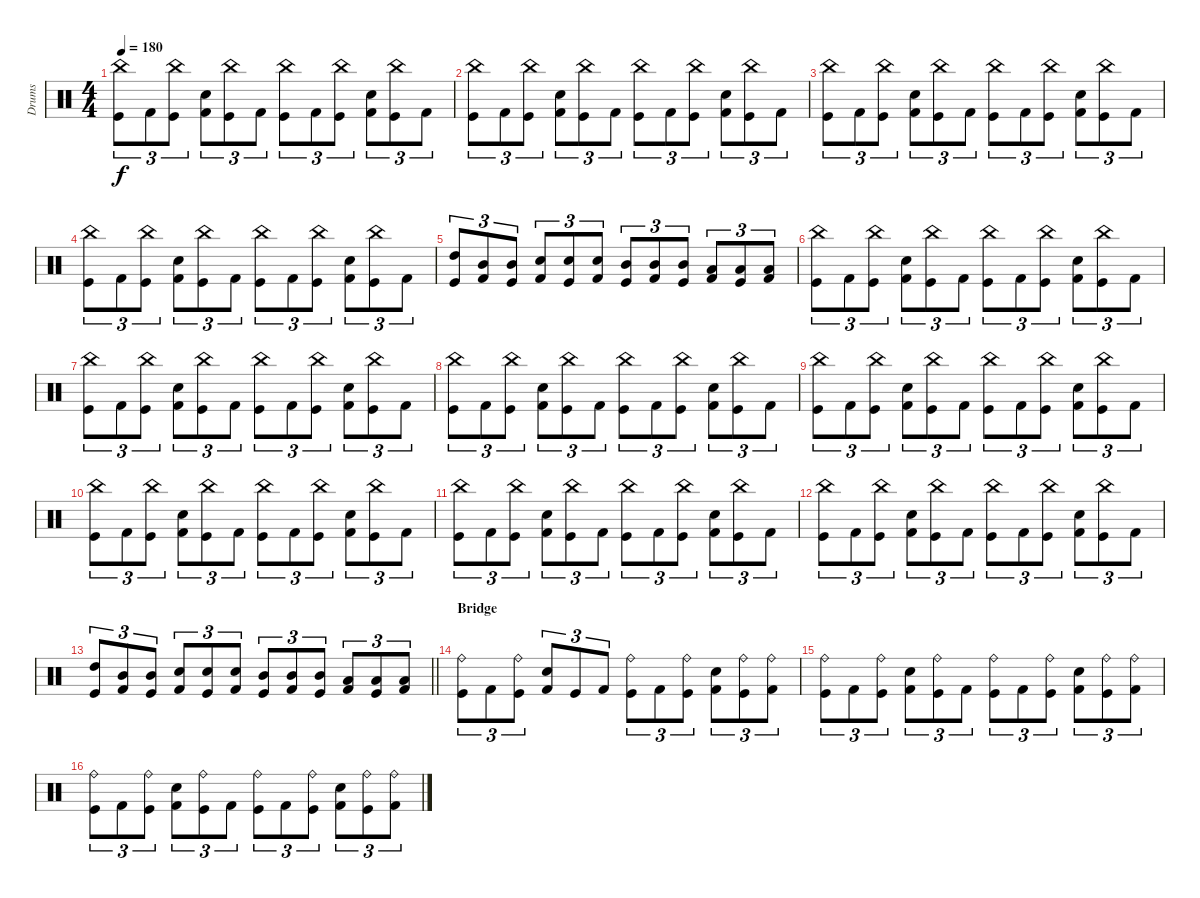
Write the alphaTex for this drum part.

\track ("Drums" "Drums") {instrument percussion}
\staff {score}
\articulation defaults
\ts (4 4)
\tempo 180
\clef neutral
\ks c
("China (hit)" "Kick (hit)").8{tu (3 2) dy f} "Kick (hit) 2".8{tu (3 2)} ("China (hit)" "Kick (hit)").8{tu (3 2)} ("Electric Snare (hit)" "Kick (hit) 2").8{tu (3 2)} ("China (hit)" "Kick (hit)").8{tu (3 2)} "Kick (hit) 2".8{tu (3 2)} ("China (hit)" "Kick (hit)").8{tu (3 2)} "Kick (hit) 2".8{tu (3 2)} ("China (hit)" "Kick (hit)").8{tu (3 2)} ("Electric Snare (hit)" "Kick (hit) 2").8{tu (3 2)} ("China (hit)" "Kick (hit)").8{tu (3 2)} "Kick (hit) 2".8{tu (3 2)} |
("China (hit)" "Kick (hit)").8{tu (3 2)} "Kick (hit) 2".8{tu (3 2)} ("China (hit)" "Kick (hit)").8{tu (3 2)} ("Electric Snare (hit)" "Kick (hit) 2").8{tu (3 2)} ("China (hit)" "Kick (hit)").8{tu (3 2)} "Kick (hit) 2".8{tu (3 2)} ("China (hit)" "Kick (hit)").8{tu (3 2)} "Kick (hit) 2".8{tu (3 2)} ("China (hit)" "Kick (hit)").8{tu (3 2)} ("Electric Snare (hit)" "Kick (hit) 2").8{tu (3 2)} ("China (hit)" "Kick (hit)").8{tu (3 2)} "Kick (hit) 2".8{tu (3 2)} |
("China (hit)" "Kick (hit)").8{tu (3 2)} "Kick (hit) 2".8{tu (3 2)} ("China (hit)" "Kick (hit)").8{tu (3 2)} ("Electric Snare (hit)" "Kick (hit) 2").8{tu (3 2)} ("China (hit)" "Kick (hit)").8{tu (3 2)} "Kick (hit) 2".8{tu (3 2)} ("China (hit)" "Kick (hit)").8{tu (3 2)} "Kick (hit) 2".8{tu (3 2)} ("China (hit)" "Kick (hit)").8{tu (3 2)} ("Electric Snare (hit)" "Kick (hit) 2").8{tu (3 2)} ("China (hit)" "Kick (hit)").8{tu (3 2)} "Kick (hit) 2".8{tu (3 2)} |
("China (hit)" "Kick (hit)").8{tu (3 2)} "Kick (hit) 2".8{tu (3 2)} ("China (hit)" "Kick (hit)").8{tu (3 2)} ("Electric Snare (hit)" "Kick (hit) 2").8{tu (3 2)} ("China (hit)" "Kick (hit)").8{tu (3 2)} "Kick (hit) 2".8{tu (3 2)} ("China (hit)" "Kick (hit)").8{tu (3 2)} "Kick (hit) 2".8{tu (3 2)} ("China (hit)" "Kick (hit)").8{tu (3 2)} ("Electric Snare (hit)" "Kick (hit) 2").8{tu (3 2)} ("China (hit)" "Kick (hit)").8{tu (3 2)} "Kick (hit) 2".8{tu (3 2)} |
("High Tom (hit)" "Kick (hit)").8{tu (3 2)} ("Mid Tom (hit)" "Kick (hit) 2").8{tu (3 2)} ("Mid Tom (hit)" "Kick (hit)").8{tu (3 2)} ("Electric Snare (hit)" "Kick (hit) 2").8{tu (3 2)} ("Electric Snare (hit)" "Kick (hit)").8{tu (3 2)} ("Electric Snare (hit)" "Kick (hit) 2").8{tu (3 2)} ("Mid Tom (hit)" "Kick (hit)").8{tu (3 2)} ("Mid Tom (hit)" "Kick (hit) 2").8{tu (3 2)} ("Mid Tom (hit)" "Kick (hit)").8{tu (3 2)} ("Low Tom (hit)" "Kick (hit) 2").8{tu (3 2)} ("Low Tom (hit)" "Kick (hit)").8{tu (3 2)} ("Low Tom (hit)" "Kick (hit) 2").8{tu (3 2)} |
("China (hit)" "Kick (hit)").8{tu (3 2)} "Kick (hit) 2".8{tu (3 2)} ("China (hit)" "Kick (hit)").8{tu (3 2)} ("Electric Snare (hit)" "Kick (hit) 2").8{tu (3 2)} ("China (hit)" "Kick (hit)").8{tu (3 2)} "Kick (hit) 2".8{tu (3 2)} ("China (hit)" "Kick (hit)").8{tu (3 2)} "Kick (hit) 2".8{tu (3 2)} ("China (hit)" "Kick (hit)").8{tu (3 2)} ("Electric Snare (hit)" "Kick (hit) 2").8{tu (3 2)} ("China (hit)" "Kick (hit)").8{tu (3 2)} "Kick (hit) 2".8{tu (3 2)} |
("China (hit)" "Kick (hit)").8{tu (3 2)} "Kick (hit) 2".8{tu (3 2)} ("China (hit)" "Kick (hit)").8{tu (3 2)} ("Electric Snare (hit)" "Kick (hit) 2").8{tu (3 2)} ("China (hit)" "Kick (hit)").8{tu (3 2)} "Kick (hit) 2".8{tu (3 2)} ("China (hit)" "Kick (hit)").8{tu (3 2)} "Kick (hit) 2".8{tu (3 2)} ("China (hit)" "Kick (hit)").8{tu (3 2)} ("Electric Snare (hit)" "Kick (hit) 2").8{tu (3 2)} ("China (hit)" "Kick (hit)").8{tu (3 2)} "Kick (hit) 2".8{tu (3 2)} |
("China (hit)" "Kick (hit)").8{tu (3 2)} "Kick (hit) 2".8{tu (3 2)} ("China (hit)" "Kick (hit)").8{tu (3 2)} ("Electric Snare (hit)" "Kick (hit) 2").8{tu (3 2)} ("China (hit)" "Kick (hit)").8{tu (3 2)} "Kick (hit) 2".8{tu (3 2)} ("China (hit)" "Kick (hit)").8{tu (3 2)} "Kick (hit) 2".8{tu (3 2)} ("China (hit)" "Kick (hit)").8{tu (3 2)} ("Electric Snare (hit)" "Kick (hit) 2").8{tu (3 2)} ("China (hit)" "Kick (hit)").8{tu (3 2)} "Kick (hit) 2".8{tu (3 2)} |
("China (hit)" "Kick (hit)").8{tu (3 2)} "Kick (hit) 2".8{tu (3 2)} ("China (hit)" "Kick (hit)").8{tu (3 2)} ("Electric Snare (hit)" "Kick (hit) 2").8{tu (3 2)} ("China (hit)" "Kick (hit)").8{tu (3 2)} "Kick (hit) 2".8{tu (3 2)} ("China (hit)" "Kick (hit)").8{tu (3 2)} "Kick (hit) 2".8{tu (3 2)} ("China (hit)" "Kick (hit)").8{tu (3 2)} ("Electric Snare (hit)" "Kick (hit) 2").8{tu (3 2)} ("China (hit)" "Kick (hit)").8{tu (3 2)} "Kick (hit) 2".8{tu (3 2)} |
("China (hit)" "Kick (hit)").8{tu (3 2)} "Kick (hit) 2".8{tu (3 2)} ("China (hit)" "Kick (hit)").8{tu (3 2)} ("Electric Snare (hit)" "Kick (hit) 2").8{tu (3 2)} ("China (hit)" "Kick (hit)").8{tu (3 2)} "Kick (hit) 2".8{tu (3 2)} ("China (hit)" "Kick (hit)").8{tu (3 2)} "Kick (hit) 2".8{tu (3 2)} ("China (hit)" "Kick (hit)").8{tu (3 2)} ("Electric Snare (hit)" "Kick (hit) 2").8{tu (3 2)} ("China (hit)" "Kick (hit)").8{tu (3 2)} "Kick (hit) 2".8{tu (3 2)} |
("China (hit)" "Kick (hit)").8{tu (3 2)} "Kick (hit) 2".8{tu (3 2)} ("China (hit)" "Kick (hit)").8{tu (3 2)} ("Electric Snare (hit)" "Kick (hit) 2").8{tu (3 2)} ("China (hit)" "Kick (hit)").8{tu (3 2)} "Kick (hit) 2".8{tu (3 2)} ("China (hit)" "Kick (hit)").8{tu (3 2)} "Kick (hit) 2".8{tu (3 2)} ("China (hit)" "Kick (hit)").8{tu (3 2)} ("Electric Snare (hit)" "Kick (hit) 2").8{tu (3 2)} ("China (hit)" "Kick (hit)").8{tu (3 2)} "Kick (hit) 2".8{tu (3 2)} |
("China (hit)" "Kick (hit)").8{tu (3 2)} "Kick (hit) 2".8{tu (3 2)} ("China (hit)" "Kick (hit)").8{tu (3 2)} ("Electric Snare (hit)" "Kick (hit) 2").8{tu (3 2)} ("China (hit)" "Kick (hit)").8{tu (3 2)} "Kick (hit) 2".8{tu (3 2)} ("China (hit)" "Kick (hit)").8{tu (3 2)} "Kick (hit) 2".8{tu (3 2)} ("China (hit)" "Kick (hit)").8{tu (3 2)} ("Electric Snare (hit)" "Kick (hit) 2").8{tu (3 2)} ("China (hit)" "Kick (hit)").8{tu (3 2)} "Kick (hit) 2".8{tu (3 2)} |
\barLineRight lightlight
("High Tom (hit)" "Kick (hit)").8{tu (3 2)} ("Mid Tom (hit)" "Kick (hit) 2").8{tu (3 2)} ("Mid Tom (hit)" "Kick (hit)").8{tu (3 2)} ("Electric Snare (hit)" "Kick (hit) 2").8{tu (3 2)} ("Electric Snare (hit)" "Kick (hit)").8{tu (3 2)} ("Electric Snare (hit)" "Kick (hit) 2").8{tu (3 2)} ("Mid Tom (hit)" "Kick (hit)").8{tu (3 2)} ("Mid Tom (hit)" "Kick (hit) 2").8{tu (3 2)} ("Mid Tom (hit)" "Kick (hit)").8{tu (3 2)} ("Low Tom (hit)" "Kick (hit) 2").8{tu (3 2)} ("Low Tom (hit)" "Kick (hit)").8{tu (3 2)} ("Low Tom (hit)" "Kick (hit) 2").8{tu (3 2)} |
\section ("" "Bridge")
("Ride (bell)" "Kick (hit)").8{tu (3 2)} "Kick (hit) 2".8{tu (3 2)} ("Ride (bell)" "Kick (hit)").8{tu (3 2)} ("Electric Snare (hit)" "Kick (hit) 2").8{tu (3 2)} "Kick (hit)".8{tu (3 2)} "Kick (hit) 2".8{tu (3 2)} ("Ride (bell)" "Kick (hit)").8{tu (3 2)} "Kick (hit) 2".8{tu (3 2)} ("Ride (bell)" "Kick (hit)").8{tu (3 2)} ("Electric Snare (hit)" "Kick (hit) 2").8{tu (3 2)} ("Ride (bell)" "Kick (hit)").8{tu (3 2)} ("Ride (bell)" "Kick (hit) 2").8{tu (3 2)} |
("Ride (bell)" "Kick (hit)").8{tu (3 2)} "Kick (hit) 2".8{tu (3 2)} ("Ride (bell)" "Kick (hit)").8{tu (3 2)} ("Electric Snare (hit)" "Kick (hit) 2").8{tu (3 2)} ("Ride (bell)" "Kick (hit)").8{tu (3 2)} "Kick (hit) 2".8{tu (3 2)} ("Ride (bell)" "Kick (hit)").8{tu (3 2)} "Kick (hit) 2".8{tu (3 2)} ("Ride (bell)" "Kick (hit)").8{tu (3 2)} ("Electric Snare (hit)" "Kick (hit) 2").8{tu (3 2)} ("Ride (bell)" "Kick (hit)").8{tu (3 2)} ("Ride (bell)" "Kick (hit) 2").8{tu (3 2)} |
("Ride (bell)" "Kick (hit)").8{tu (3 2)} "Kick (hit) 2".8{tu (3 2)} ("Ride (bell)" "Kick (hit)").8{tu (3 2)} ("Electric Snare (hit)" "Kick (hit) 2").8{tu (3 2)} ("Ride (bell)" "Kick (hit)").8{tu (3 2)} "Kick (hit) 2".8{tu (3 2)} ("Ride (bell)" "Kick (hit)").8{tu (3 2)} "Kick (hit) 2".8{tu (3 2)} ("Ride (bell)" "Kick (hit)").8{tu (3 2)} ("Electric Snare (hit)" "Kick (hit) 2").8{tu (3 2)} ("Ride (bell)" "Kick (hit)").8{tu (3 2)} ("Ride (bell)" "Kick (hit) 2").8{tu (3 2)}
